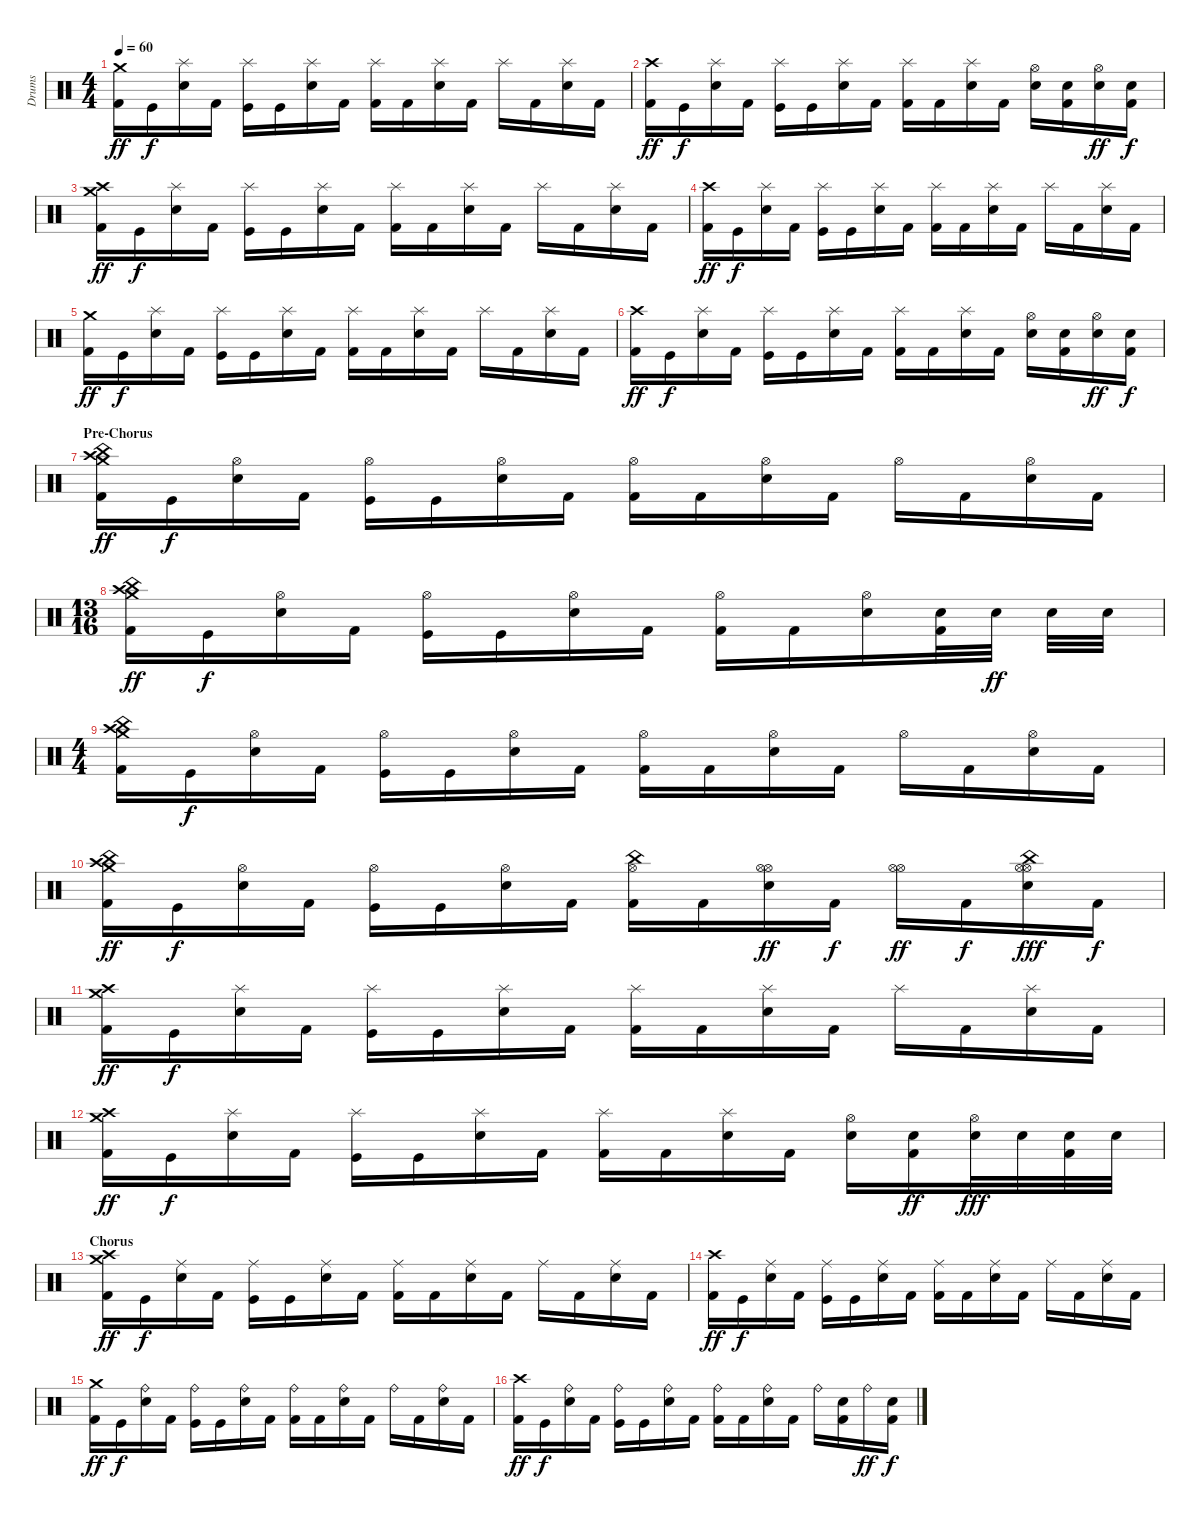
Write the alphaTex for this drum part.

\track ("Drums" "Drums") {instrument percussion}
\staff {score}
\articulation defaults
\ts (4 4)
\tempo 60
\clef neutral
\ks c
("Crash medium (hit)" "Kick (hit) 2").16{dy ff} "Kick (hit)".16{dy f} ("Splash (hit)" "Snare (hit) 2").16 "Kick (hit) 2".16 ("Splash (hit)" "Kick (hit)").16 "Kick (hit)".16 ("Splash (hit)" "Snare (hit) 2").16 "Kick (hit) 2".16 ("Splash (hit)" "Kick (hit) 2").16 "Kick (hit) 2".16 ("Splash (hit)" "Snare (hit) 2").16 "Kick (hit) 2".16 "Splash (hit)".16 "Kick (hit) 2".16 ("Splash (hit)" "Snare (hit) 2").16 "Kick (hit) 2".16 |
("Crash high (hit)" "Kick (hit) 2").16{dy ff} "Kick (hit)".16{dy f} ("Splash (hit)" "Snare (hit) 2").16 "Kick (hit) 2".16 ("Splash (hit)" "Kick (hit)").16 "Kick (hit)".16 ("Splash (hit)" "Snare (hit) 2").16 "Kick (hit) 2".16 ("Splash (hit)" "Kick (hit) 2").16 "Kick (hit) 2".16 ("Splash (hit)" "Snare (hit) 2").16 "Kick (hit) 2".16 ("Hi-Hat (open)" "Snare (hit) 2").16 ("Snare (hit) 2" "Kick (hit) 2").16 ("Hi-Hat (open)" "Snare (hit) 2").16{dy ff} ("Snare (hit) 2" "Kick (hit) 2").16{dy f} |
("Crash medium (hit)" "Crash high (hit)" "Kick (hit) 2").16{dy ff} "Kick (hit)".16{dy f} ("Splash (hit)" "Snare (hit) 2").16 "Kick (hit) 2".16 ("Splash (hit)" "Kick (hit)").16 "Kick (hit)".16 ("Splash (hit)" "Snare (hit) 2").16 "Kick (hit) 2".16 ("Splash (hit)" "Kick (hit) 2").16 "Kick (hit) 2".16 ("Splash (hit)" "Snare (hit) 2").16 "Kick (hit) 2".16 "Splash (hit)".16 "Kick (hit) 2".16 ("Splash (hit)" "Snare (hit) 2").16 "Kick (hit) 2".16 |
("Crash high (hit)" "Kick (hit) 2").16{dy ff} "Kick (hit)".16{dy f} ("Splash (hit)" "Snare (hit) 2").16 "Kick (hit) 2".16 ("Splash (hit)" "Kick (hit)").16 "Kick (hit)".16 ("Splash (hit)" "Snare (hit) 2").16 "Kick (hit) 2".16 ("Splash (hit)" "Kick (hit) 2").16 "Kick (hit) 2".16 ("Splash (hit)" "Snare (hit) 2").16 "Kick (hit) 2".16 "Splash (hit)".16 "Kick (hit) 2".16 ("Splash (hit)" "Snare (hit) 2").16 "Kick (hit) 2".16 |
("Crash medium (hit)" "Kick (hit) 2").16{dy ff} "Kick (hit)".16{dy f} ("Splash (hit)" "Snare (hit) 2").16 "Kick (hit) 2".16 ("Splash (hit)" "Kick (hit)").16 "Kick (hit)".16 ("Splash (hit)" "Snare (hit) 2").16 "Kick (hit) 2".16 ("Splash (hit)" "Kick (hit) 2").16 "Kick (hit) 2".16 ("Splash (hit)" "Snare (hit) 2").16 "Kick (hit) 2".16 "Splash (hit)".16 "Kick (hit) 2".16 ("Splash (hit)" "Snare (hit) 2").16 "Kick (hit) 2".16 |
("Crash high (hit)" "Kick (hit) 2").16{dy ff} "Kick (hit)".16{dy f} ("Splash (hit)" "Snare (hit) 2").16 "Kick (hit) 2".16 ("Splash (hit)" "Kick (hit)").16 "Kick (hit)".16 ("Splash (hit)" "Snare (hit) 2").16 "Kick (hit) 2".16 ("Splash (hit)" "Kick (hit) 2").16 "Kick (hit) 2".16 ("Splash (hit)" "Snare (hit) 2").16 "Kick (hit) 2".16 ("Hi-Hat (open)" "Snare (hit) 2").16 ("Snare (hit) 2" "Kick (hit) 2").16 ("Hi-Hat (open)" "Snare (hit) 2").16{dy ff} ("Snare (hit) 2" "Kick (hit) 2").16{dy f} |
\section ("" "Pre-Chorus")
("Crash medium (hit)" "Crash high (hit)" "China (hit)" "Kick (hit) 2").16{dy ff} "Kick (hit)".16{dy f} ("Hi-Hat (open)" "Snare (hit) 2").16 "Kick (hit) 2".16 ("Hi-Hat (open)" "Kick (hit)").16 "Kick (hit)".16 ("Hi-Hat (open)" "Snare (hit) 2").16 "Kick (hit) 2".16 ("Hi-Hat (open)" "Kick (hit) 2").16 "Kick (hit) 2".16 ("Hi-Hat (open)" "Snare (hit) 2").16 "Kick (hit) 2".16 "Hi-Hat (open)".16 "Kick (hit) 2".16 ("Hi-Hat (open)" "Snare (hit) 2").16 "Kick (hit) 2".16 |
\ts (13 16)
("Crash medium (hit)" "Crash high (hit)" "China (hit)" "Kick (hit) 2").16{dy ff} "Kick (hit)".16{dy f} ("Hi-Hat (open)" "Snare (hit) 2").16 "Kick (hit) 2".16 ("Hi-Hat (open)" "Kick (hit)").16 "Kick (hit)".16 ("Hi-Hat (open)" "Snare (hit) 2").16 "Kick (hit) 2".16 ("Hi-Hat (open)" "Kick (hit) 2").16 "Kick (hit) 2".16 ("Hi-Hat (open)" "Snare (hit) 2").16 ("Snare (hit) 2" "Kick (hit) 2").32 "Snare (hit) 2".32{dy ff} "Snare (hit) 2".32 "Snare (hit) 2".32 |
\ts (4 4)
("Crash medium (hit)" "Crash high (hit)" "China (hit)" "Kick (hit) 2").16 "Kick (hit)".16{dy f} ("Hi-Hat (open)" "Snare (hit) 2").16 "Kick (hit) 2".16 ("Hi-Hat (open)" "Kick (hit)").16 "Kick (hit)".16 ("Hi-Hat (open)" "Snare (hit) 2").16 "Kick (hit) 2".16 ("Hi-Hat (open)" "Kick (hit) 2").16 "Kick (hit) 2".16 ("Hi-Hat (open)" "Snare (hit) 2").16 "Kick (hit) 2".16 "Hi-Hat (open)".16 "Kick (hit) 2".16 ("Hi-Hat (open)" "Snare (hit) 2").16 "Kick (hit) 2".16 |
("Crash medium (hit)" "Crash high (hit)" "China (hit)" "Kick (hit) 2").16{dy ff} "Kick (hit)".16{dy f} ("Hi-Hat (open)" "Snare (hit) 2").16 "Kick (hit) 2".16 ("Hi-Hat (open)" "Kick (hit)").16 "Kick (hit)".16 ("Hi-Hat (open)" "Snare (hit) 2").16 "Kick (hit) 2".16 ("Hi-Hat (open)" "China (hit)" "Kick (hit) 2").16 "Kick (hit) 2".16 ("Hi-Hat (open)" "Hi-Hat (open)" "Snare (hit) 2").16{dy ff} "Kick (hit) 2".16{dy f} ("Hi-Hat (open)" "Hi-Hat (open)").16{dy ff} "Kick (hit) 2".16{dy f} ("Hi-Hat (open)" "Hi-Hat (open)" "China (hit)" "Snare (hit) 2").16{dy fff} "Kick (hit) 2".16{dy f} |
("Crash medium (hit)" "Crash high (hit)" "Kick (hit) 2").16{dy ff} "Kick (hit)".16{dy f} ("Splash (hit)" "Snare (hit) 2").16 "Kick (hit) 2".16 ("Splash (hit)" "Kick (hit)").16 "Kick (hit)".16 ("Splash (hit)" "Snare (hit) 2").16 "Kick (hit) 2".16 ("Splash (hit)" "Kick (hit) 2").16 "Kick (hit) 2".16 ("Splash (hit)" "Snare (hit) 2").16 "Kick (hit) 2".16 "Splash (hit)".16 "Kick (hit) 2".16 ("Splash (hit)" "Snare (hit) 2").16 "Kick (hit) 2".16 |
("Crash medium (hit)" "Crash high (hit)" "Kick (hit) 2").16{dy ff} "Kick (hit)".16{dy f} ("Splash (hit)" "Snare (hit) 2").16 "Kick (hit) 2".16 ("Splash (hit)" "Kick (hit)").16 "Kick (hit)".16 ("Splash (hit)" "Snare (hit) 2").16 "Kick (hit) 2".16 ("Splash (hit)" "Kick (hit) 2").16 "Kick (hit) 2".16 ("Splash (hit)" "Snare (hit) 2").16 "Kick (hit) 2".16 ("Hi-Hat (open)" "Snare (hit) 2").16 ("Snare (hit) 2" "Kick (hit) 2").16{dy ff} ("Hi-Hat (open)" "Snare (hit) 2").32{dy fff} "Snare (hit) 2".32 ("Snare (hit) 2" "Kick (hit) 2").32 "Snare (hit) 2".32 |
\section ("" "Chorus")
("Crash medium (hit)" "Crash high (hit)" "Kick (hit) 2").16{dy ff} "Kick (hit)".16{dy f} ("Ride (middle)" "Snare (hit) 2").16 "Kick (hit) 2".16 ("Ride (middle)" "Kick (hit)").16 "Kick (hit)".16 ("Ride (middle)" "Snare (hit) 2").16 "Kick (hit) 2".16 ("Ride (middle)" "Kick (hit) 2").16 "Kick (hit) 2".16 ("Ride (middle)" "Snare (hit) 2").16 "Kick (hit) 2".16 "Ride (middle)".16 "Kick (hit) 2".16 ("Ride (middle)" "Snare (hit) 2").16 "Kick (hit) 2".16 |
("Crash high (hit)" "Kick (hit) 2").16{dy ff} "Kick (hit)".16{dy f} ("Ride (middle)" "Snare (hit) 2").16 "Kick (hit) 2".16 ("Ride (middle)" "Kick (hit)").16 "Kick (hit)".16 ("Ride (middle)" "Snare (hit) 2").16 "Kick (hit) 2".16 ("Ride (middle)" "Kick (hit) 2").16 "Kick (hit) 2".16 ("Ride (middle)" "Snare (hit) 2").16 "Kick (hit) 2".16 "Ride (middle)".16 "Kick (hit) 2".16 ("Ride (middle)" "Snare (hit) 2").16 "Kick (hit) 2".16 |
("Crash medium (hit)" "Kick (hit) 2").16{dy ff} "Kick (hit)".16{dy f} ("Ride (bell)" "Snare (hit) 2").16 "Kick (hit) 2".16 ("Ride (bell)" "Kick (hit)").16 "Kick (hit)".16 ("Ride (bell)" "Snare (hit) 2").16 "Kick (hit) 2".16 ("Ride (bell)" "Kick (hit) 2").16 "Kick (hit) 2".16 ("Ride (bell)" "Snare (hit) 2").16 "Kick (hit) 2".16 "Ride (bell)".16 "Kick (hit) 2".16 ("Ride (bell)" "Snare (hit) 2").16 "Kick (hit) 2".16 |
("Crash high (hit)" "Kick (hit) 2").16{dy ff} "Kick (hit)".16{dy f} ("Ride (bell)" "Snare (hit) 2").16 "Kick (hit) 2".16 ("Ride (bell)" "Kick (hit)").16 "Kick (hit)".16 ("Ride (bell)" "Snare (hit) 2").16 "Kick (hit) 2".16 ("Ride (bell)" "Kick (hit) 2").16 "Kick (hit) 2".16 ("Ride (bell)" "Snare (hit) 2").16 "Kick (hit) 2".16 "Ride (bell)".16 ("Snare (hit) 2" "Kick (hit) 2").16 "Ride (bell)".16{dy ff} ("Snare (hit) 2" "Kick (hit) 2").16{dy f}
